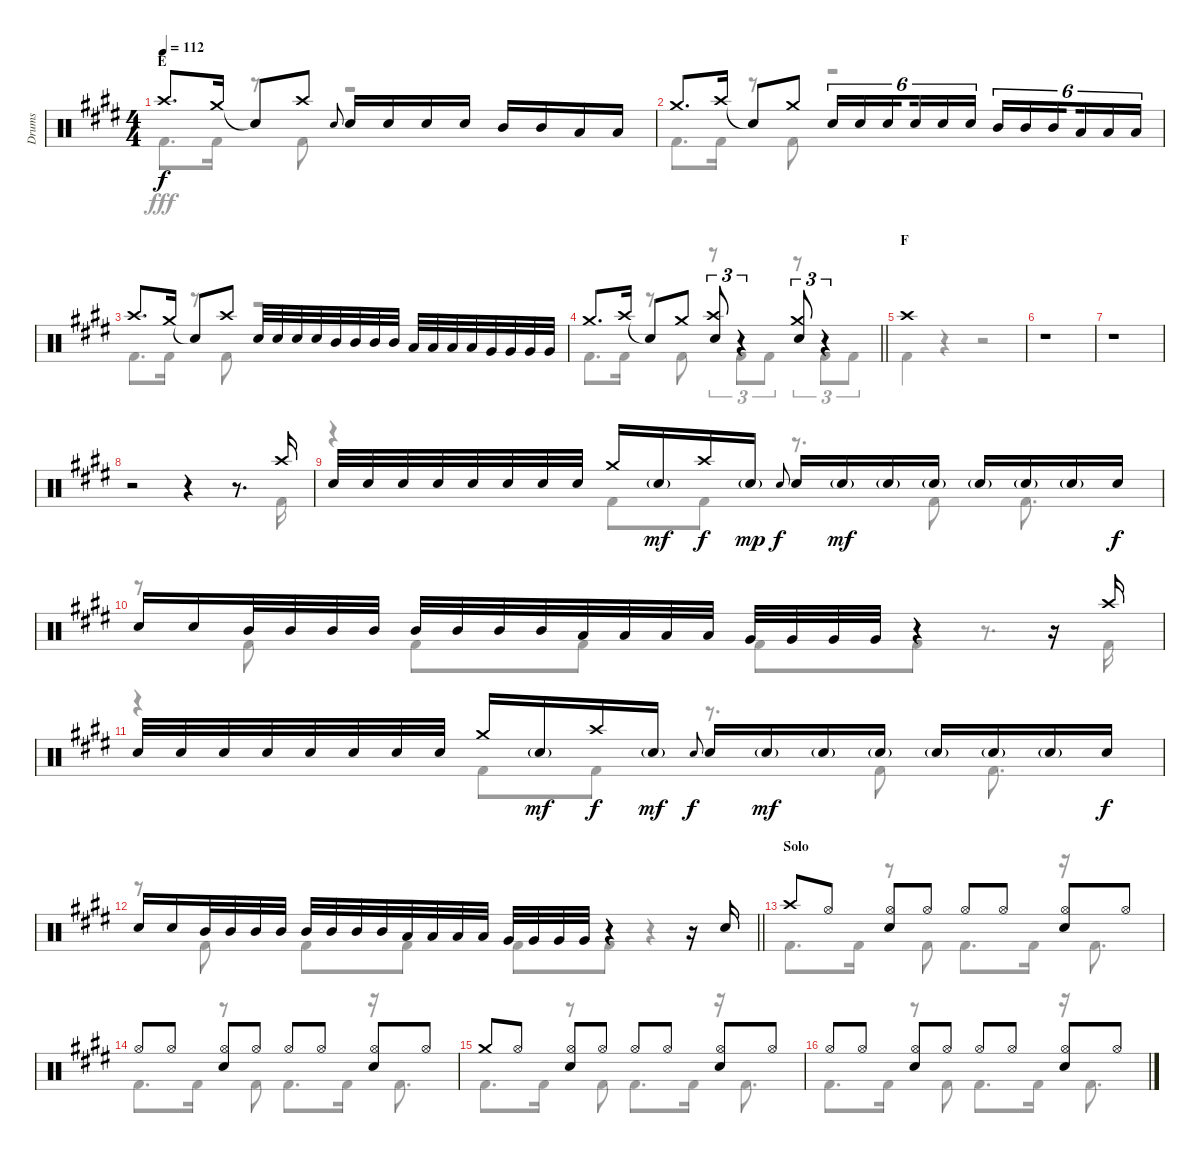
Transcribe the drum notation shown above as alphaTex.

\track ("Drums" "Drums") {instrument percussion}
\staff {score}
\articulation defaults
\voice
\ts (4 4)
\section ("" "E")
\tempo 112
\clef neutral
\ks e "Crash high (hit)".8{d dy f} "Crash medium (hit)".16 "Snare (hit)"{t}.8 "Crash high (hit)".8 "Snare (hit) 2".8{gr onbeat} "Snare (hit) 2".16 "Snare (hit) 2".16 "Snare (hit) 2".16 "Snare (hit) 2".16 "Mid Tom (hit)".16 "Mid Tom (hit)".16 "Low Tom (hit)".16 "Low Tom (hit)".16
|
"Crash medium (hit)".8{d} "Crash high (hit)".16 "Snare (hit)"{t}.8 "Crash medium (hit)".8 "Snare (hit) 2".16{tu (6 4)} "Snare (hit) 2".16{tu (6 4)} "Snare (hit) 2".16{tu (6 4) beam splitsecondary} "Snare (hit) 2".16{tu (6 4)} "Snare (hit) 2".16{tu (6 4)} "Snare (hit) 2".16{tu (6 4)} "Mid Tom (hit)".16{tu (6 4)} "Mid Tom (hit)".16{tu (6 4)} "Mid Tom (hit)".16{tu (6 4) beam splitsecondary} "Low Tom (hit)".16{tu (6 4)} "Low Tom (hit)".16{tu (6 4)} "Low Tom (hit)".16{tu (6 4)} |
"Crash high (hit)".8{d} "Crash medium (hit)".16 "Snare (hit)"{t}.8 "Crash high (hit)".8 "Snare (hit) 2".32 "Snare (hit) 2".32 "Snare (hit) 2".32 "Snare (hit) 2".32 "Mid Tom (hit)".32 "Mid Tom (hit)".32 "Mid Tom (hit)".32 "Mid Tom (hit)".32 "Low Tom (hit)".32 "Low Tom (hit)".32 "Low Tom (hit)".32 "Low Tom (hit)".32 "Very Low Tom (hit)".32 "Very Low Tom (hit)".32 "Very Low Tom (hit)".32 "Very Low Tom (hit)".32 |
\barLineRight lightlight "Crash medium (hit)".8{d} "Crash high (hit)".16 "Snare (hit)"{t}.8 "Crash medium (hit)".8
("Crash high (hit)" "Snare (hit) 2").8{tu (3 2)} r.4{tu (3 2)} ("Crash medium (hit)" "Snare (hit) 2").8{tu (3 2)} r.4{tu (3 2)} |
\section ("" "F")
"Crash high (hit)".1 |
r.1 |
r.1 |
r.2 r.4 r.8{d} "Crash high (hit)".16 |
"Snare (hit) 2".32 "Snare (hit) 2".32 "Snare (hit) 2".32 "Snare (hit) 2".32 "Snare (hit) 2".32 "Snare (hit) 2".32 "Snare (hit) 2".32 "Snare (hit) 2".32 "Crash medium (hit)".16 "Snare (hit) 2"{g}.16{dy mf} "Crash high (hit)".16{dy f} "Snare (hit) 2"{g}.16{dy mp} "Snare (hit) 2".8{gr onbeat dy f} "Snare (hit) 2".16 "Snare (hit) 2"{g}.16{dy mf} "Snare (hit) 2"{g}.16 "Snare (hit) 2"{g}.16 "Snare (hit) 2"{g}.16 "Snare (hit) 2"{g}.16 "Snare (hit) 2"{g}.16 "Snare (hit) 2".16{dy f} |
"Snare (hit) 2".16 "Snare (hit) 2".16 "Mid Tom (hit)".32 "Mid Tom (hit)".32 "Mid Tom (hit)".32 "Mid Tom (hit)".32 "Mid Tom (hit)".32 "Mid Tom (hit)".32 "Mid Tom (hit)".32 "Mid Tom (hit)".32 "Low Tom (hit)".32 "Low Tom (hit)".32 "Low Tom (hit)".32 "Low Tom (hit)".32 "Very Low Tom (hit)".32 "Very Low Tom (hit)".32 "Very Low Tom (hit)".32 "Very Low Tom (hit)".32 r.4 r.16 "Crash high (hit)".16 |
"Snare (hit) 2".32 "Snare (hit) 2".32 "Snare (hit) 2".32 "Snare (hit) 2".32 "Snare (hit) 2".32 "Snare (hit) 2".32 "Snare (hit) 2".32 "Snare (hit) 2".32 "Crash medium (hit)".16 "Snare (hit) 2"{g}.16{dy mf} "Crash high (hit)".16{dy f} "Snare (hit) 2"{g}.16{dy mf} "Snare (hit) 2".8{gr onbeat dy f} "Snare (hit) 2".16 "Snare (hit) 2"{g}.16{dy mf} "Snare (hit) 2"{g}.16 "Snare (hit) 2"{g}.16 "Snare (hit) 2"{g}.16 "Snare (hit) 2"{g}.16 "Snare (hit) 2"{g}.16 "Snare (hit) 2".16{dy f} |
\barLineRight lightlight "Snare (hit) 2".16 "Snare (hit) 2".16 "Mid Tom (hit)".32 "Mid Tom (hit)".32 "Mid Tom (hit)".32 "Mid Tom (hit)".32 "Mid Tom (hit)".32 "Mid Tom (hit)".32 "Mid Tom (hit)".32 "Mid Tom (hit)".32 "Low Tom (hit)".32 "Low Tom (hit)".32 "Low Tom (hit)".32 "Low Tom (hit)".32 "Very Low Tom (hit)".32 "Very Low Tom (hit)".32 "Very Low Tom (hit)".32 "Very Low Tom (hit)".32
r.4 r.16 "Snare (hit) 2".16 |
\section ("" "Solo")
"Crash high (hit)".8 "Hi-Hat (open)".8 ("Hi-Hat (open)" "Snare (hit) 2").8 "Hi-Hat (open)".8 "Hi-Hat (open)".8 "Hi-Hat (open)".8 ("Hi-Hat (open)" "Snare (hit) 2").8 "Hi-Hat (open)".8 |
"Hi-Hat (open)".8 "Hi-Hat (open)".8 ("Hi-Hat (open)" "Snare (hit) 2").8 "Hi-Hat (open)".8 "Hi-Hat (open)".8 "Hi-Hat (open)".8 ("Hi-Hat (open)" "Snare (hit) 2").8 "Hi-Hat (open)".8 |
"Crash medium (hit)".8 "Hi-Hat (open)".8 ("Hi-Hat (open)" "Snare (hit) 2").8 "Hi-Hat (open)".8 "Hi-Hat (open)".8 "Hi-Hat (open)".8 ("Hi-Hat (open)" "Snare (hit) 2").8 "Hi-Hat (open)".8 |
"Hi-Hat (open)".8 "Hi-Hat (open)".8 ("Hi-Hat (open)" "Snare (hit) 2").8 "Hi-Hat (open)".8 "Hi-Hat (open)".8 "Hi-Hat (open)".8 ("Hi-Hat (open)" "Snare (hit) 2").8 "Hi-Hat (open)".8
\voice
\clef neutral
\ottava regular
\simile none
\ks e "Kick (hit) 2".8{d dy fff} "Kick (hit) 2".16
r.8 "Kick (hit) 2".8 r.2 |
"Kick (hit) 2".8{d} "Kick (hit) 2".16 r.8 "Kick (hit) 2".8 r.2 |
"Kick (hit) 2".8{d} "Kick (hit) 2".16 r.8 "Kick (hit) 2".8 r.2 |
\barLineRight lightlight "Kick (hit) 2".8{d} "Kick (hit) 2".16
r.8 "Kick (hit) 2".8 r.8{tu (3 2)} "Kick (hit) 2".8{tu (3 2)} "Kick (hit) 2".8{tu (3 2)} r.8{tu (3 2)} "Kick (hit) 2".8{tu (3 2)} "Kick (hit) 2".8{tu (3 2)} |
"Kick (hit) 2".4 r.4 r.2 |
r.1 |
r.1 |
r.2 r.4 r.8{d} "Kick (hit) 2".16 |
r.4 "Kick (hit) 2".8 "Kick (hit) 2".8 r.8{d} "Kick (hit) 2".8 "Kick (hit) 2".8{d} |
r.8 "Kick (hit) 2".8 "Kick (hit) 2".8 "Kick (hit) 2".8 "Kick (hit) 2".8 "Kick (hit) 2".8 r.8{d} "Kick (hit) 2".16 |
r.4 "Kick (hit) 2".8 "Kick (hit) 2".8 r.8{d} "Kick (hit) 2".8 "Kick (hit) 2".8{d} |
\barLineRight lightlight
r.8 "Kick (hit) 2".8 "Kick (hit) 2".8 "Kick (hit) 2".8 "Kick (hit) 2".8 "Kick (hit) 2".8 r.4 |
"Kick (hit) 2".8{d} "Kick (hit) 2".16 r.8 "Kick (hit) 2".8 "Kick (hit) 2".8{d} "Kick (hit) 2".16 r.16 "Kick (hit) 2".8{d} |
"Kick (hit) 2".8{d} "Kick (hit) 2".16 r.8 "Kick (hit) 2".8 "Kick (hit) 2".8{d} "Kick (hit) 2".16 r.16 "Kick (hit) 2".8{d} |
"Kick (hit) 2".8{d} "Kick (hit) 2".16 r.8 "Kick (hit) 2".8 "Kick (hit) 2".8{d} "Kick (hit) 2".16 r.16 "Kick (hit) 2".8{d} |
"Kick (hit) 2".8{d} "Kick (hit) 2".16 r.8 "Kick (hit) 2".8 "Kick (hit) 2".8{d} "Kick (hit) 2".16 r.16 "Kick (hit) 2".8{d}
